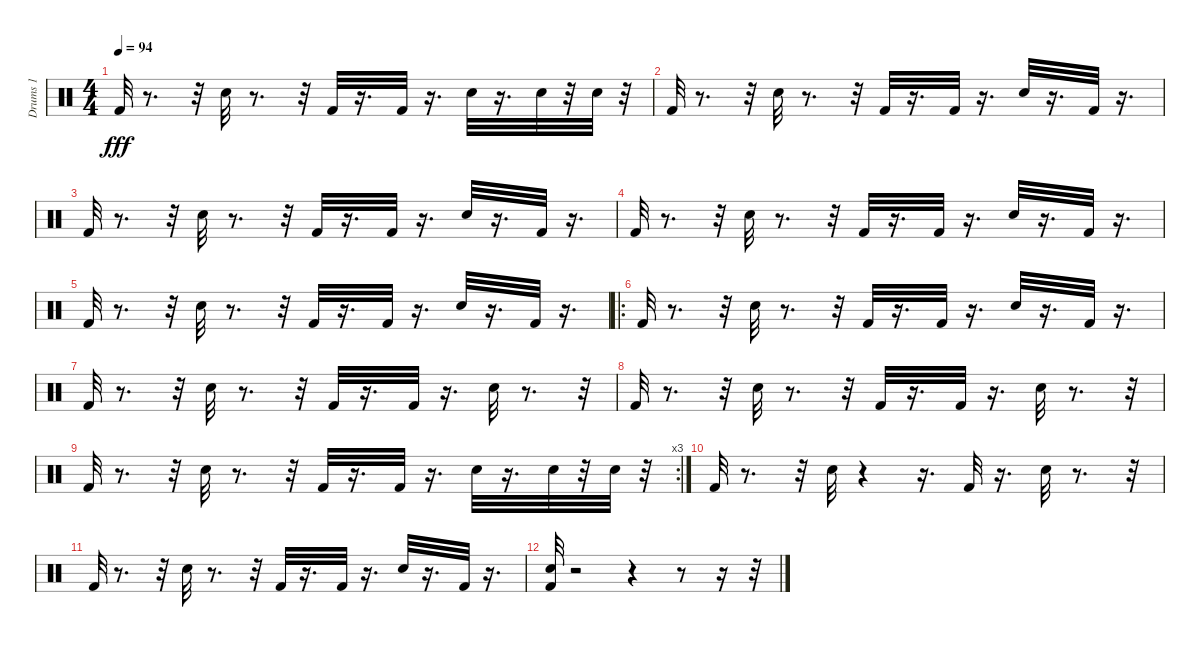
\track ("Drums 1" "Drums 1") {instrument percussion}
\staff {score}
\articulation defaults
\ts (4 4)
\tempo 94
\clef neutral
\ks c "Kick (hit) 2".32{dy fff}
r.8{d} r.32 "Electric Snare (hit)".32 r.8{d} r.32 "Kick (hit) 2".32 r.16{d} "Kick (hit) 2".32 r.16{d} "Electric Snare (hit)".32 r.16{d} "Electric Snare (hit)".32 r.32 "Electric Snare (hit)".32 r.32 |
"Kick (hit) 2".32 r.8{d} r.32 "Electric Snare (hit)".32 r.8{d} r.32 "Kick (hit) 2".32 r.16{d} "Kick (hit) 2".32 r.16{d} "Electric Snare (hit)".32 r.16{d} "Kick (hit) 2".32 r.16{d} |
"Kick (hit) 2".32 r.8{d} r.32 "Electric Snare (hit)".32 r.8{d} r.32 "Kick (hit) 2".32 r.16{d} "Kick (hit) 2".32 r.16{d} "Electric Snare (hit)".32 r.16{d} "Kick (hit) 2".32 r.16{d} |
"Kick (hit) 2".32 r.8{d} r.32 "Electric Snare (hit)".32 r.8{d} r.32 "Kick (hit) 2".32 r.16{d} "Kick (hit) 2".32 r.16{d} "Electric Snare (hit)".32 r.16{d} "Kick (hit) 2".32 r.16{d} |
"Kick (hit) 2".32 r.8{d} r.32 "Electric Snare (hit)".32 r.8{d} r.32 "Kick (hit) 2".32 r.16{d} "Kick (hit) 2".32 r.16{d} "Electric Snare (hit)".32 r.16{d} "Kick (hit) 2".32 r.16{d} |
\ro "Kick (hit) 2".32
r.8{d} r.32 "Electric Snare (hit)".32 r.8{d} r.32 "Kick (hit) 2".32 r.16{d} "Kick (hit) 2".32 r.16{d} "Electric Snare (hit)".32 r.16{d} "Kick (hit) 2".32 r.16{d} |
"Kick (hit) 2".32 r.8{d} r.32 "Electric Snare (hit)".32 r.8{d} r.32 "Kick (hit) 2".32 r.16{d} "Kick (hit) 2".32 r.16{d} "Electric Snare (hit)".32 r.8{d} r.32 |
"Kick (hit) 2".32 r.8{d} r.32 "Electric Snare (hit)".32 r.8{d} r.32 "Kick (hit) 2".32 r.16{d} "Kick (hit) 2".32 r.16{d} "Electric Snare (hit)".32 r.8{d} r.32 |
\rc 3 "Kick (hit) 2".32
r.8{d} r.32 "Electric Snare (hit)".32 r.8{d} r.32 "Kick (hit) 2".32 r.16{d} "Kick (hit) 2".32 r.16{d} "Electric Snare (hit)".32 r.16{d} "Electric Snare (hit)".32 r.32 "Electric Snare (hit)".32 r.32 |
"Kick (hit) 2".32 r.8{d} r.32 "Electric Snare (hit)".32 r.4 r.16{d} "Kick (hit) 2".32 r.16{d} "Electric Snare (hit)".32 r.8{d} r.32 |
"Kick (hit) 2".32 r.8{d} r.32 "Electric Snare (hit)".32 r.8{d} r.32 "Kick (hit) 2".32 r.16{d} "Kick (hit) 2".32 r.16{d} "Electric Snare (hit)".32 r.16{d} "Kick (hit) 2".32 r.16{d} |
("Kick (hit) 2" "Electric Snare (hit)").32 r.2 r.4 r.8 r.16 r.32
